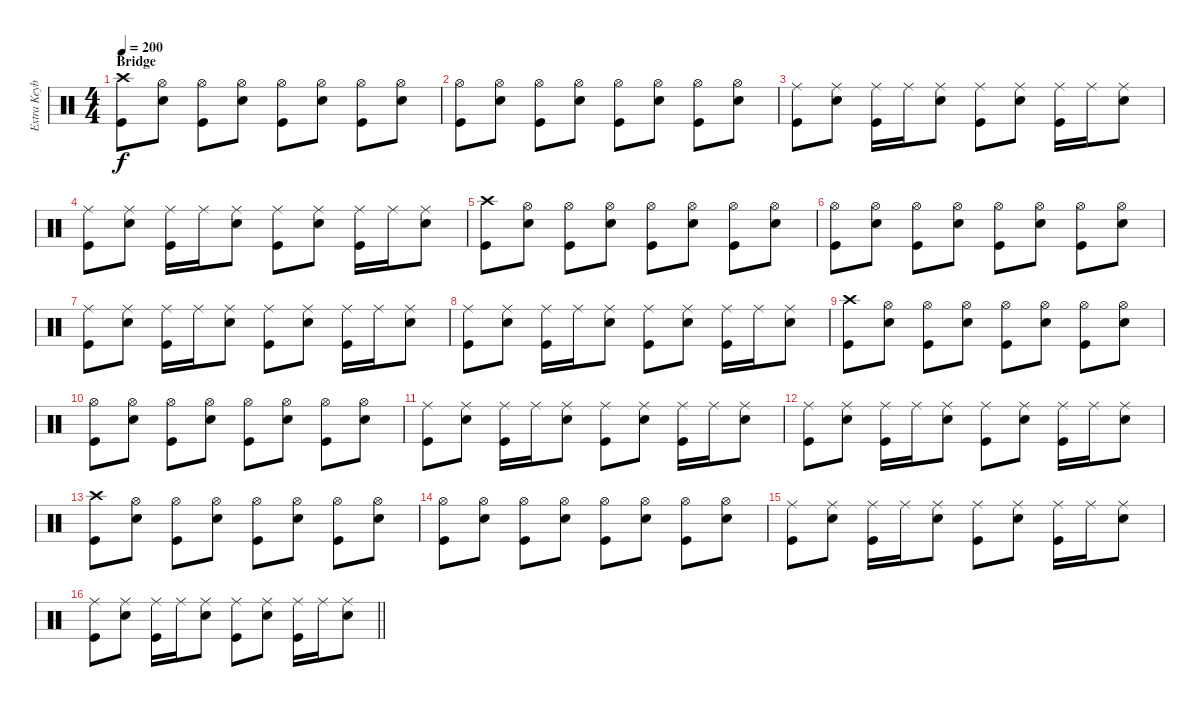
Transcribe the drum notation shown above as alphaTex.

\track ("Extra Keyboard" "Extra Keyb") {instrument percussion}
\staff {score}
\articulation defaults
\ts (4 4)
\section ("" "Bridge")
\tempo 200
\clef neutral
\ks c
("Crash high (hit)" "Kick (hit)").8{dy f} ("Hi-Hat (open)" "Electric Snare (hit)").8 ("Hi-Hat (open)" "Kick (hit)").8 ("Hi-Hat (open)" "Electric Snare (hit)").8 ("Hi-Hat (open)" "Kick (hit)").8 ("Hi-Hat (open)" "Electric Snare (hit)").8 ("Hi-Hat (open)" "Kick (hit)").8 ("Hi-Hat (open)" "Electric Snare (hit)").8 |
("Hi-Hat (open)" "Kick (hit)").8 ("Hi-Hat (open)" "Electric Snare (hit)").8 ("Hi-Hat (open)" "Kick (hit)").8 ("Hi-Hat (open)" "Electric Snare (hit)").8 ("Hi-Hat (open)" "Kick (hit)").8 ("Hi-Hat (open)" "Electric Snare (hit)").8 ("Hi-Hat (open)" "Kick (hit)").8 ("Hi-Hat (open)" "Electric Snare (hit)").8 |
("Ride (middle)" "Kick (hit)").8 ("Ride (middle)" "Electric Snare (hit)").8 ("Ride (middle)" "Kick (hit)").16 "Ride (middle)".16 ("Ride (middle)" "Electric Snare (hit)").8 ("Ride (middle)" "Kick (hit)").8 ("Ride (middle)" "Electric Snare (hit)").8 ("Ride (middle)" "Kick (hit)").16 "Ride (middle)".16 ("Ride (middle)" "Electric Snare (hit)").8 |
("Ride (middle)" "Kick (hit)").8 ("Ride (middle)" "Electric Snare (hit)").8 ("Ride (middle)" "Kick (hit)").16 "Ride (middle)".16 ("Ride (middle)" "Electric Snare (hit)").8 ("Ride (middle)" "Kick (hit)").8 ("Ride (middle)" "Electric Snare (hit)").8 ("Ride (middle)" "Kick (hit)").16 "Ride (middle)".16 ("Ride (middle)" "Electric Snare (hit)").8 |
("Crash high (hit)" "Kick (hit)").8 ("Hi-Hat (open)" "Electric Snare (hit)").8 ("Hi-Hat (open)" "Kick (hit)").8 ("Hi-Hat (open)" "Electric Snare (hit)").8 ("Hi-Hat (open)" "Kick (hit)").8 ("Hi-Hat (open)" "Electric Snare (hit)").8 ("Hi-Hat (open)" "Kick (hit)").8 ("Hi-Hat (open)" "Electric Snare (hit)").8 |
("Hi-Hat (open)" "Kick (hit)").8 ("Hi-Hat (open)" "Electric Snare (hit)").8 ("Hi-Hat (open)" "Kick (hit)").8 ("Hi-Hat (open)" "Electric Snare (hit)").8 ("Hi-Hat (open)" "Kick (hit)").8 ("Hi-Hat (open)" "Electric Snare (hit)").8 ("Hi-Hat (open)" "Kick (hit)").8 ("Hi-Hat (open)" "Electric Snare (hit)").8 |
("Ride (middle)" "Kick (hit)").8 ("Ride (middle)" "Electric Snare (hit)").8 ("Ride (middle)" "Kick (hit)").16 "Ride (middle)".16 ("Ride (middle)" "Electric Snare (hit)").8 ("Ride (middle)" "Kick (hit)").8 ("Ride (middle)" "Electric Snare (hit)").8 ("Ride (middle)" "Kick (hit)").16 "Ride (middle)".16 ("Ride (middle)" "Electric Snare (hit)").8 |
("Ride (middle)" "Kick (hit)").8 ("Ride (middle)" "Electric Snare (hit)").8 ("Ride (middle)" "Kick (hit)").16 "Ride (middle)".16 ("Ride (middle)" "Electric Snare (hit)").8 ("Ride (middle)" "Kick (hit)").8 ("Ride (middle)" "Electric Snare (hit)").8 ("Ride (middle)" "Kick (hit)").16 "Ride (middle)".16 ("Ride (middle)" "Electric Snare (hit)").8 |
("Crash high (hit)" "Kick (hit)").8 ("Hi-Hat (open)" "Electric Snare (hit)").8 ("Hi-Hat (open)" "Kick (hit)").8 ("Hi-Hat (open)" "Electric Snare (hit)").8 ("Hi-Hat (open)" "Kick (hit)").8 ("Hi-Hat (open)" "Electric Snare (hit)").8 ("Hi-Hat (open)" "Kick (hit)").8 ("Hi-Hat (open)" "Electric Snare (hit)").8 |
("Hi-Hat (open)" "Kick (hit)").8 ("Hi-Hat (open)" "Electric Snare (hit)").8 ("Hi-Hat (open)" "Kick (hit)").8 ("Hi-Hat (open)" "Electric Snare (hit)").8 ("Hi-Hat (open)" "Kick (hit)").8 ("Hi-Hat (open)" "Electric Snare (hit)").8 ("Hi-Hat (open)" "Kick (hit)").8 ("Hi-Hat (open)" "Electric Snare (hit)").8 |
("Ride (middle)" "Kick (hit)").8 ("Ride (middle)" "Electric Snare (hit)").8 ("Ride (middle)" "Kick (hit)").16 "Ride (middle)".16 ("Ride (middle)" "Electric Snare (hit)").8 ("Ride (middle)" "Kick (hit)").8 ("Ride (middle)" "Electric Snare (hit)").8 ("Ride (middle)" "Kick (hit)").16 "Ride (middle)".16 ("Ride (middle)" "Electric Snare (hit)").8 |
("Ride (middle)" "Kick (hit)").8 ("Ride (middle)" "Electric Snare (hit)").8 ("Ride (middle)" "Kick (hit)").16 "Ride (middle)".16 ("Ride (middle)" "Electric Snare (hit)").8 ("Ride (middle)" "Kick (hit)").8 ("Ride (middle)" "Electric Snare (hit)").8 ("Ride (middle)" "Kick (hit)").16 "Ride (middle)".16 ("Ride (middle)" "Electric Snare (hit)").8 |
("Crash high (hit)" "Kick (hit)").8 ("Hi-Hat (open)" "Electric Snare (hit)").8 ("Hi-Hat (open)" "Kick (hit)").8 ("Hi-Hat (open)" "Electric Snare (hit)").8 ("Hi-Hat (open)" "Kick (hit)").8 ("Hi-Hat (open)" "Electric Snare (hit)").8 ("Hi-Hat (open)" "Kick (hit)").8 ("Hi-Hat (open)" "Electric Snare (hit)").8 |
("Hi-Hat (open)" "Kick (hit)").8 ("Hi-Hat (open)" "Electric Snare (hit)").8 ("Hi-Hat (open)" "Kick (hit)").8 ("Hi-Hat (open)" "Electric Snare (hit)").8 ("Hi-Hat (open)" "Kick (hit)").8 ("Hi-Hat (open)" "Electric Snare (hit)").8 ("Hi-Hat (open)" "Kick (hit)").8 ("Hi-Hat (open)" "Electric Snare (hit)").8 |
("Ride (middle)" "Kick (hit)").8 ("Ride (middle)" "Electric Snare (hit)").8 ("Ride (middle)" "Kick (hit)").16 "Ride (middle)".16 ("Ride (middle)" "Electric Snare (hit)").8 ("Ride (middle)" "Kick (hit)").8 ("Ride (middle)" "Electric Snare (hit)").8 ("Ride (middle)" "Kick (hit)").16 "Ride (middle)".16 ("Ride (middle)" "Electric Snare (hit)").8 |
\barLineRight lightlight
("Ride (middle)" "Kick (hit)").8 ("Ride (middle)" "Electric Snare (hit)").8 ("Ride (middle)" "Kick (hit)").16 "Ride (middle)".16 ("Ride (middle)" "Electric Snare (hit)").8 ("Ride (middle)" "Kick (hit)").8 ("Ride (middle)" "Electric Snare (hit)").8 ("Ride (middle)" "Kick (hit)").16 "Ride (middle)".16 ("Ride (middle)" "Electric Snare (hit)").8
